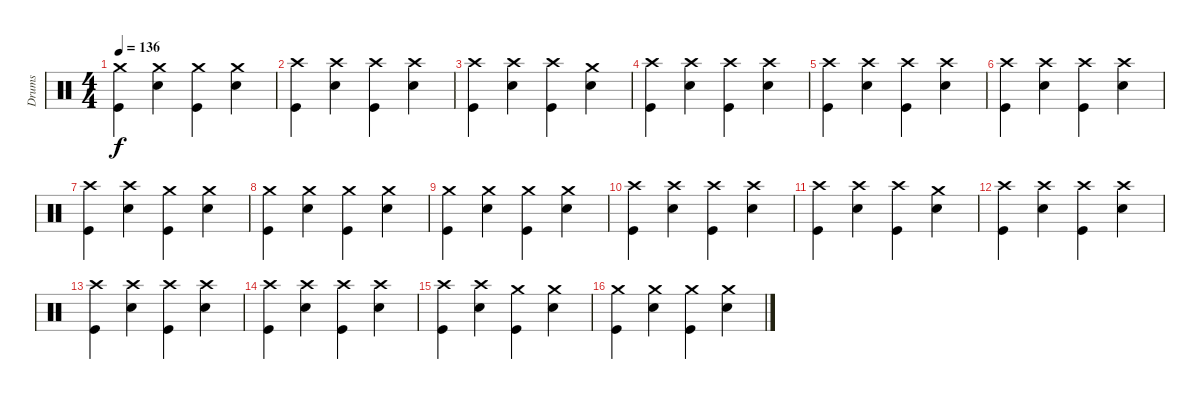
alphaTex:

\track ("Drums" "Drums") {instrument percussion}
\staff {score}
\articulation defaults
\ts (4 4)
\tempo 136
\clef neutral
\ks c
("Crash medium (hit)" "Kick (hit)").4{dy f} ("Crash medium (hit)" "Electric Snare (hit)").4 ("Crash medium (hit)" "Kick (hit)").4 ("Crash medium (hit)" "Electric Snare (hit)").4 |
("Crash high (hit)" "Kick (hit)").4 ("Crash high (hit)" "Electric Snare (hit)").4 ("Crash high (hit)" "Kick (hit)").4 ("Crash high (hit)" "Electric Snare (hit)").4 |
("Crash high (hit)" "Kick (hit)").4 ("Crash high (hit)" "Electric Snare (hit)").4 ("Crash high (hit)" "Kick (hit)").4 ("Crash medium (hit)" "Electric Snare (hit)").4 |
("Crash high (hit)" "Kick (hit)").4 ("Crash high (hit)" "Electric Snare (hit)").4 ("Crash high (hit)" "Kick (hit)").4 ("Crash high (hit)" "Electric Snare (hit)").4 |
("Crash high (hit)" "Kick (hit)").4 ("Crash high (hit)" "Electric Snare (hit)").4 ("Crash high (hit)" "Kick (hit)").4 ("Crash high (hit)" "Electric Snare (hit)").4 |
("Crash high (hit)" "Kick (hit)").4 ("Crash high (hit)" "Electric Snare (hit)").4 ("Crash high (hit)" "Kick (hit)").4 ("Crash high (hit)" "Electric Snare (hit)").4 |
("Crash high (hit)" "Kick (hit)").4 ("Crash high (hit)" "Electric Snare (hit)").4 ("Crash medium (hit)" "Kick (hit)").4 ("Crash medium (hit)" "Electric Snare (hit)").4 |
("Crash medium (hit)" "Kick (hit)").4 ("Crash medium (hit)" "Electric Snare (hit)").4 ("Crash medium (hit)" "Kick (hit)").4 ("Crash medium (hit)" "Electric Snare (hit)").4 |
("Crash medium (hit)" "Kick (hit)").4 ("Crash medium (hit)" "Electric Snare (hit)").4 ("Crash medium (hit)" "Kick (hit)").4 ("Crash medium (hit)" "Electric Snare (hit)").4 |
("Crash high (hit)" "Kick (hit)").4 ("Crash high (hit)" "Electric Snare (hit)").4 ("Crash high (hit)" "Kick (hit)").4 ("Crash high (hit)" "Electric Snare (hit)").4 |
("Crash high (hit)" "Kick (hit)").4 ("Crash high (hit)" "Electric Snare (hit)").4 ("Crash high (hit)" "Kick (hit)").4 ("Crash medium (hit)" "Electric Snare (hit)").4 |
("Crash high (hit)" "Kick (hit)").4 ("Crash high (hit)" "Electric Snare (hit)").4 ("Crash high (hit)" "Kick (hit)").4 ("Crash high (hit)" "Electric Snare (hit)").4 |
("Crash high (hit)" "Kick (hit)").4 ("Crash high (hit)" "Electric Snare (hit)").4 ("Crash high (hit)" "Kick (hit)").4 ("Crash high (hit)" "Electric Snare (hit)").4 |
("Crash high (hit)" "Kick (hit)").4 ("Crash high (hit)" "Electric Snare (hit)").4 ("Crash high (hit)" "Kick (hit)").4 ("Crash high (hit)" "Electric Snare (hit)").4 |
("Crash high (hit)" "Kick (hit)").4 ("Crash high (hit)" "Electric Snare (hit)").4 ("Crash medium (hit)" "Kick (hit)").4 ("Crash medium (hit)" "Electric Snare (hit)").4 |
("Crash medium (hit)" "Kick (hit)").4 ("Crash medium (hit)" "Electric Snare (hit)").4 ("Crash medium (hit)" "Kick (hit)").4 ("Crash medium (hit)" "Electric Snare (hit)").4
